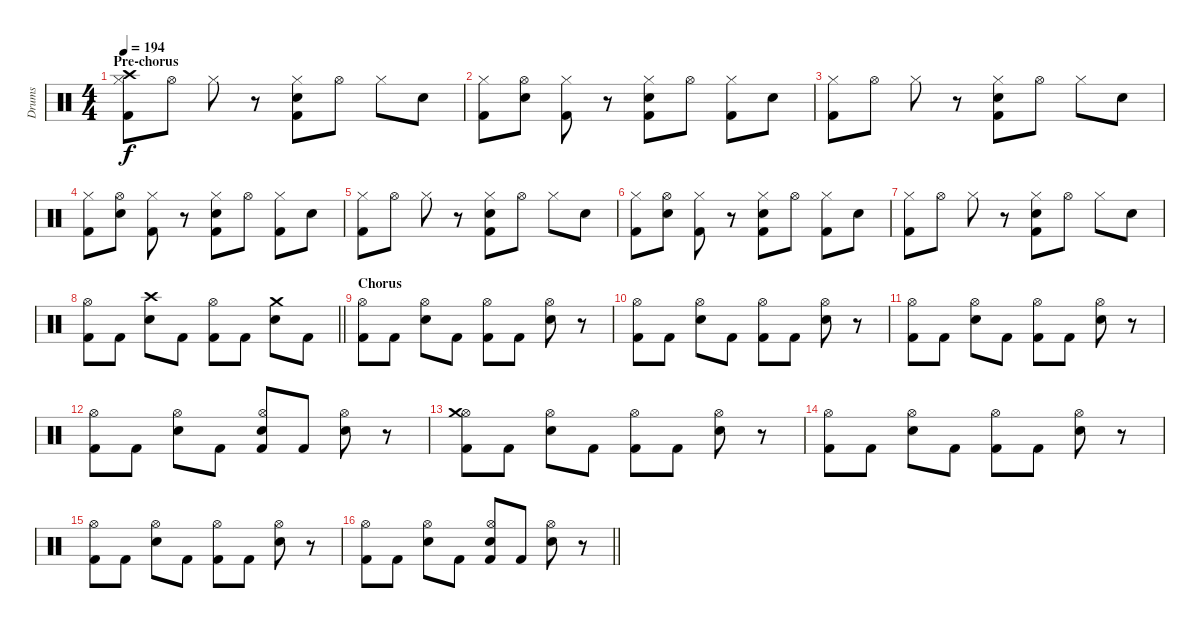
\track ("Drums" "Drums") {instrument percussion}
\staff {score}
\articulation defaults
\ts (4 4)
\section ("" "Pre-chorus")
\tempo 194
\clef neutral
\ks c
("Hi-Hat (closed)" "Crash high (hit)" "Kick (hit) 2").8{dy f} "Hi-Hat (open)".8 "Hi-Hat (closed)".8 r.8 ("Hi-Hat (closed)" "Snare (hit) 2" "Kick (hit) 2").8 "Hi-Hat (open)".8 "Hi-Hat (closed)".8 "Snare (hit) 2".8 |
("Hi-Hat (closed)" "Kick (hit) 2").8 ("Hi-Hat (open)" "Snare (hit) 2").8 ("Hi-Hat (closed)" "Kick (hit) 2").8 r.8 ("Hi-Hat (closed)" "Snare (hit) 2" "Kick (hit) 2").8 "Hi-Hat (open)".8 ("Hi-Hat (closed)" "Kick (hit) 2").8 "Snare (hit) 2".8 |
("Hi-Hat (closed)" "Kick (hit) 2").8 "Hi-Hat (open)".8 "Hi-Hat (closed)".8 r.8 ("Hi-Hat (closed)" "Snare (hit) 2" "Kick (hit) 2").8 "Hi-Hat (open)".8 "Hi-Hat (closed)".8 "Snare (hit) 2".8 |
("Hi-Hat (closed)" "Kick (hit) 2").8 ("Hi-Hat (open)" "Snare (hit) 2").8 ("Hi-Hat (closed)" "Kick (hit) 2").8 r.8 ("Hi-Hat (closed)" "Snare (hit) 2" "Kick (hit) 2").8 "Hi-Hat (open)".8 ("Hi-Hat (closed)" "Kick (hit) 2").8 "Snare (hit) 2".8 |
("Hi-Hat (closed)" "Kick (hit) 2").8 "Hi-Hat (open)".8 "Hi-Hat (closed)".8 r.8 ("Hi-Hat (closed)" "Snare (hit) 2" "Kick (hit) 2").8 "Hi-Hat (open)".8 "Hi-Hat (closed)".8 "Snare (hit) 2".8 |
("Hi-Hat (closed)" "Kick (hit) 2").8 ("Hi-Hat (open)" "Snare (hit) 2").8 ("Hi-Hat (closed)" "Kick (hit) 2").8 r.8 ("Hi-Hat (closed)" "Snare (hit) 2" "Kick (hit) 2").8 "Hi-Hat (open)".8 ("Hi-Hat (closed)" "Kick (hit) 2").8 "Snare (hit) 2".8 |
("Hi-Hat (closed)" "Kick (hit) 2").8 "Hi-Hat (open)".8 "Hi-Hat (closed)".8 r.8 ("Hi-Hat (closed)" "Snare (hit) 2" "Kick (hit) 2").8 "Hi-Hat (open)".8 "Hi-Hat (closed)".8 "Snare (hit) 2".8 |
\barLineRight lightlight
("Hi-Hat (open)" "Kick (hit) 2").8 "Kick (hit) 2".8 ("Crash high (hit)" "Snare (hit) 2").8 "Kick (hit) 2".8 ("Hi-Hat (open)" "Kick (hit) 2").8 "Kick (hit) 2".8 ("Crash medium (hit)" "Snare (hit) 2").8 "Kick (hit) 2".8 |
\section ("" "Chorus")
("Hi-Hat (open)" "Kick (hit) 2").8 "Kick (hit) 2".8 ("Hi-Hat (open)" "Snare (hit) 2").8 "Kick (hit) 2".8 ("Hi-Hat (open)" "Kick (hit) 2").8 "Kick (hit) 2".8 ("Hi-Hat (open)" "Snare (hit) 2").8 r.8 |
("Hi-Hat (open)" "Kick (hit) 2").8 "Kick (hit) 2".8 ("Hi-Hat (open)" "Snare (hit) 2").8 "Kick (hit) 2".8 ("Hi-Hat (open)" "Kick (hit) 2").8 "Kick (hit) 2".8 ("Hi-Hat (open)" "Snare (hit) 2").8 r.8 |
("Hi-Hat (open)" "Kick (hit) 2").8 "Kick (hit) 2".8 ("Hi-Hat (open)" "Snare (hit) 2").8 "Kick (hit) 2".8 ("Hi-Hat (open)" "Kick (hit) 2").8 "Kick (hit) 2".8 ("Hi-Hat (open)" "Snare (hit) 2").8 r.8 |
("Hi-Hat (open)" "Kick (hit) 2").8 "Kick (hit) 2".8 ("Hi-Hat (open)" "Snare (hit) 2").8 "Kick (hit) 2".8 ("Hi-Hat (open)" "Snare (hit) 2" "Kick (hit) 2").8 "Kick (hit) 2".8 ("Hi-Hat (open)" "Snare (hit) 2").8 r.8 |
("Hi-Hat (open)" "Crash medium (hit)" "Kick (hit) 2").8 "Kick (hit) 2".8 ("Hi-Hat (open)" "Snare (hit) 2").8 "Kick (hit) 2".8 ("Hi-Hat (open)" "Kick (hit) 2").8 "Kick (hit) 2".8 ("Hi-Hat (open)" "Snare (hit) 2").8 r.8 |
("Hi-Hat (open)" "Kick (hit) 2").8 "Kick (hit) 2".8 ("Hi-Hat (open)" "Snare (hit) 2").8 "Kick (hit) 2".8 ("Hi-Hat (open)" "Kick (hit) 2").8 "Kick (hit) 2".8 ("Hi-Hat (open)" "Snare (hit) 2").8 r.8 |
("Hi-Hat (open)" "Kick (hit) 2").8 "Kick (hit) 2".8 ("Hi-Hat (open)" "Snare (hit) 2").8 "Kick (hit) 2".8 ("Hi-Hat (open)" "Kick (hit) 2").8 "Kick (hit) 2".8 ("Hi-Hat (open)" "Snare (hit) 2").8 r.8 |
\barLineRight lightlight
("Hi-Hat (open)" "Kick (hit) 2").8 "Kick (hit) 2".8 ("Hi-Hat (open)" "Snare (hit) 2").8 "Kick (hit) 2".8 ("Hi-Hat (open)" "Snare (hit) 2" "Kick (hit) 2").8 "Kick (hit) 2".8 ("Hi-Hat (open)" "Snare (hit) 2").8 r.8
